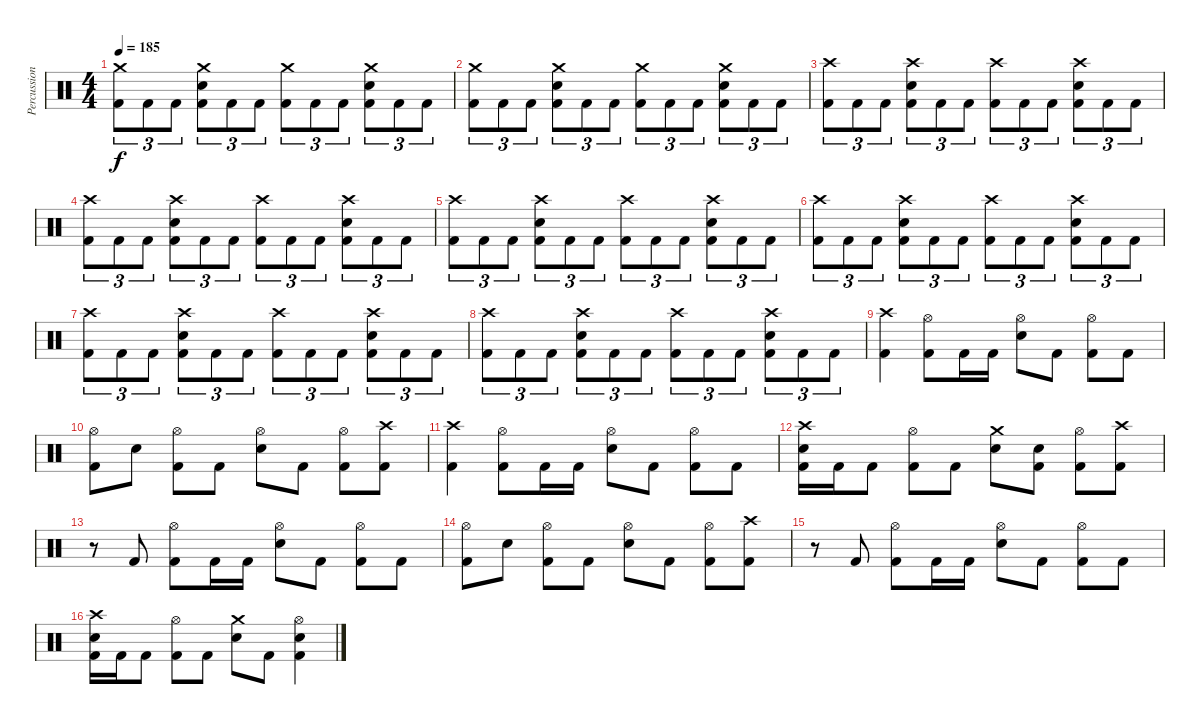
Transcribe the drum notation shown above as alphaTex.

\track ("Percussion" "Percussion") {instrument percussion}
\staff {score}
\articulation defaults
\ts (4 4)
\tempo 185
\clef neutral
\ks c
("Crash medium (hit)" "Kick (hit) 2").8{tu (3 2) dy f} "Kick (hit) 2".8{tu (3 2)} "Kick (hit) 2".8{tu (3 2)} ("Crash medium (hit)" "Electric Snare (hit)" "Kick (hit) 2").8{tu (3 2)} "Kick (hit) 2".8{tu (3 2)} "Kick (hit) 2".8{tu (3 2)} ("Crash medium (hit)" "Kick (hit) 2").8{tu (3 2)} "Kick (hit) 2".8{tu (3 2)} "Kick (hit) 2".8{tu (3 2)} ("Crash medium (hit)" "Electric Snare (hit)" "Kick (hit) 2").8{tu (3 2)} "Kick (hit) 2".8{tu (3 2)} "Kick (hit) 2".8{tu (3 2)} |
("Crash medium (hit)" "Kick (hit) 2").8{tu (3 2)} "Kick (hit) 2".8{tu (3 2)} "Kick (hit) 2".8{tu (3 2)} ("Crash medium (hit)" "Electric Snare (hit)" "Kick (hit) 2").8{tu (3 2)} "Kick (hit) 2".8{tu (3 2)} "Kick (hit) 2".8{tu (3 2)} ("Crash medium (hit)" "Kick (hit) 2").8{tu (3 2)} "Kick (hit) 2".8{tu (3 2)} "Kick (hit) 2".8{tu (3 2)} ("Crash medium (hit)" "Electric Snare (hit)" "Kick (hit) 2").8{tu (3 2)} "Kick (hit) 2".8{tu (3 2)} "Kick (hit) 2".8{tu (3 2)} |
("Crash high (hit)" "Kick (hit) 2").8{tu (3 2)} "Kick (hit) 2".8{tu (3 2)} "Kick (hit) 2".8{tu (3 2)} ("Crash high (hit)" "Electric Snare (hit)" "Kick (hit) 2").8{tu (3 2)} "Kick (hit) 2".8{tu (3 2)} "Kick (hit) 2".8{tu (3 2)} ("Crash high (hit)" "Kick (hit) 2").8{tu (3 2)} "Kick (hit) 2".8{tu (3 2)} "Kick (hit) 2".8{tu (3 2)} ("Crash high (hit)" "Electric Snare (hit)" "Kick (hit) 2").8{tu (3 2)} "Kick (hit) 2".8{tu (3 2)} "Kick (hit) 2".8{tu (3 2)} |
("Crash high (hit)" "Kick (hit) 2").8{tu (3 2)} "Kick (hit) 2".8{tu (3 2)} "Kick (hit) 2".8{tu (3 2)} ("Crash high (hit)" "Electric Snare (hit)" "Kick (hit) 2").8{tu (3 2)} "Kick (hit) 2".8{tu (3 2)} "Kick (hit) 2".8{tu (3 2)} ("Crash high (hit)" "Kick (hit) 2").8{tu (3 2)} "Kick (hit) 2".8{tu (3 2)} "Kick (hit) 2".8{tu (3 2)} ("Crash high (hit)" "Electric Snare (hit)" "Kick (hit) 2").8{tu (3 2)} "Kick (hit) 2".8{tu (3 2)} "Kick (hit) 2".8{tu (3 2)} |
("Crash high (hit)" "Kick (hit) 2").8{tu (3 2)} "Kick (hit) 2".8{tu (3 2)} "Kick (hit) 2".8{tu (3 2)} ("Crash high (hit)" "Electric Snare (hit)" "Kick (hit) 2").8{tu (3 2)} "Kick (hit) 2".8{tu (3 2)} "Kick (hit) 2".8{tu (3 2)} ("Crash high (hit)" "Kick (hit) 2").8{tu (3 2)} "Kick (hit) 2".8{tu (3 2)} "Kick (hit) 2".8{tu (3 2)} ("Crash high (hit)" "Electric Snare (hit)" "Kick (hit) 2").8{tu (3 2)} "Kick (hit) 2".8{tu (3 2)} "Kick (hit) 2".8{tu (3 2)} |
("Crash high (hit)" "Kick (hit) 2").8{tu (3 2)} "Kick (hit) 2".8{tu (3 2)} "Kick (hit) 2".8{tu (3 2)} ("Crash high (hit)" "Electric Snare (hit)" "Kick (hit) 2").8{tu (3 2)} "Kick (hit) 2".8{tu (3 2)} "Kick (hit) 2".8{tu (3 2)} ("Crash high (hit)" "Kick (hit) 2").8{tu (3 2)} "Kick (hit) 2".8{tu (3 2)} "Kick (hit) 2".8{tu (3 2)} ("Crash high (hit)" "Electric Snare (hit)" "Kick (hit) 2").8{tu (3 2)} "Kick (hit) 2".8{tu (3 2)} "Kick (hit) 2".8{tu (3 2)} |
("Crash high (hit)" "Kick (hit) 2").8{tu (3 2)} "Kick (hit) 2".8{tu (3 2)} "Kick (hit) 2".8{tu (3 2)} ("Crash high (hit)" "Electric Snare (hit)" "Kick (hit) 2").8{tu (3 2)} "Kick (hit) 2".8{tu (3 2)} "Kick (hit) 2".8{tu (3 2)} ("Crash high (hit)" "Kick (hit) 2").8{tu (3 2)} "Kick (hit) 2".8{tu (3 2)} "Kick (hit) 2".8{tu (3 2)} ("Crash high (hit)" "Electric Snare (hit)" "Kick (hit) 2").8{tu (3 2)} "Kick (hit) 2".8{tu (3 2)} "Kick (hit) 2".8{tu (3 2)} |
("Crash high (hit)" "Kick (hit) 2").8{tu (3 2)} "Kick (hit) 2".8{tu (3 2)} "Kick (hit) 2".8{tu (3 2)} ("Crash high (hit)" "Electric Snare (hit)" "Kick (hit) 2").8{tu (3 2)} "Kick (hit) 2".8{tu (3 2)} "Kick (hit) 2".8{tu (3 2)} ("Crash high (hit)" "Kick (hit) 2").8{tu (3 2)} "Kick (hit) 2".8{tu (3 2)} "Kick (hit) 2".8{tu (3 2)} ("Crash high (hit)" "Electric Snare (hit)" "Kick (hit) 2").8{tu (3 2)} "Kick (hit) 2".8{tu (3 2)} "Kick (hit) 2".8{tu (3 2)} |
("Crash high (hit)" "Kick (hit) 2").4 ("Hi-Hat (open)" "Kick (hit) 2").8 "Kick (hit) 2".16 "Kick (hit) 2".16 ("Hi-Hat (open)" "Electric Snare (hit)").8 "Kick (hit) 2".8 ("Hi-Hat (open)" "Kick (hit) 2").8 "Kick (hit) 2".8 |
("Hi-Hat (open)" "Kick (hit) 2").8 "Electric Snare (hit)".8 ("Hi-Hat (open)" "Kick (hit) 2").8 "Kick (hit) 2".8 ("Hi-Hat (open)" "Electric Snare (hit)").8 "Kick (hit) 2".8 ("Hi-Hat (open)" "Kick (hit) 2").8 ("Crash high (hit)" "Kick (hit) 2").8 |
("Crash high (hit)" "Kick (hit) 2").4 ("Hi-Hat (open)" "Kick (hit) 2").8 "Kick (hit) 2".16 "Kick (hit) 2".16 ("Hi-Hat (open)" "Electric Snare (hit)").8 "Kick (hit) 2".8 ("Hi-Hat (open)" "Kick (hit) 2").8 "Kick (hit) 2".8 |
("Crash high (hit)" "Electric Snare (hit)" "Kick (hit) 2").16 "Kick (hit) 2".16 "Kick (hit) 2".8 ("Hi-Hat (open)" "Kick (hit) 2").8 "Kick (hit) 2".8 ("Crash medium (hit)" "Electric Snare (hit)").8 ("Electric Snare (hit)" "Kick (hit) 2").8 ("Hi-Hat (open)" "Kick (hit) 2").8 ("Crash high (hit)" "Kick (hit) 2").8 |
r.8 "Kick (hit) 2".8 ("Hi-Hat (open)" "Kick (hit) 2").8 "Kick (hit) 2".16 "Kick (hit) 2".16 ("Hi-Hat (open)" "Electric Snare (hit)").8 "Kick (hit) 2".8 ("Hi-Hat (open)" "Kick (hit) 2").8 "Kick (hit) 2".8 |
("Hi-Hat (open)" "Kick (hit) 2").8 "Electric Snare (hit)".8 ("Hi-Hat (open)" "Kick (hit) 2").8 "Kick (hit) 2".8 ("Hi-Hat (open)" "Electric Snare (hit)").8 "Kick (hit) 2".8 ("Hi-Hat (open)" "Kick (hit) 2").8 ("Crash high (hit)" "Kick (hit) 2").8 |
r.8 "Kick (hit) 2".8 ("Hi-Hat (open)" "Kick (hit) 2").8 "Kick (hit) 2".16 "Kick (hit) 2".16 ("Hi-Hat (open)" "Electric Snare (hit)").8 "Kick (hit) 2".8 ("Hi-Hat (open)" "Kick (hit) 2").8 "Kick (hit) 2".8 |
("Crash high (hit)" "Electric Snare (hit)" "Kick (hit) 2").16 "Kick (hit) 2".16 "Kick (hit) 2".8 ("Hi-Hat (open)" "Kick (hit) 2").8 "Kick (hit) 2".8 ("Crash medium (hit)" "Electric Snare (hit)").8 "Kick (hit) 2".8 ("Hi-Hat (open)" "Electric Snare (hit)" "Kick (hit) 2").4
